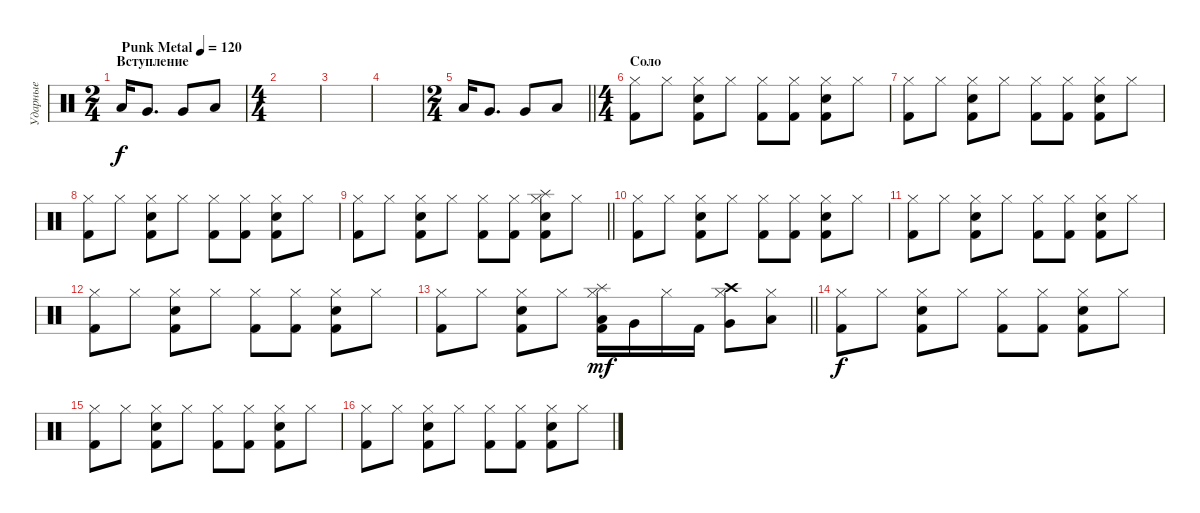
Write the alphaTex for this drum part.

\track ("Ударные" "Ударные") {solo instrument percussion}
\staff {score}
\articulation defaults
\ts (2 4)
\section ("" "Вступление")
\tempo (120 "Punk Metal")
\clef neutral
\ks c "Low Tom (hit)".16{dy f} "Very Low Tom (hit)".8{d} "Very Low Tom (hit)".8 "Low Floor Tom (hit)".8
|
\ts (4 4)
|
|
|
\ts (2 4)
\barLineRight lightlight "Low Tom (hit)".16 "Very Low Tom (hit)".8{d} "Very Low Tom (hit)".8 "Low Floor Tom (hit)".8
|
\ts (4 4)
\section ("" "Соло")
("Hi-Hat (closed)" "Kick (hit) 2").8 "Hi-Hat (closed)".8 ("Hi-Hat (closed)" "Kick (hit) 2" "Electric Snare (hit)").8 "Hi-Hat (closed)".8 ("Hi-Hat (closed)" "Kick (hit) 2").8 ("Hi-Hat (closed)" "Kick (hit) 2").8 ("Hi-Hat (closed)" "Kick (hit) 2" "Electric Snare (hit)").8 "Hi-Hat (closed)".8 |
("Hi-Hat (closed)" "Kick (hit) 2").8 "Hi-Hat (closed)".8 ("Hi-Hat (closed)" "Kick (hit) 2" "Electric Snare (hit)").8 "Hi-Hat (closed)".8 ("Hi-Hat (closed)" "Kick (hit) 2").8 ("Hi-Hat (closed)" "Kick (hit) 2").8 ("Hi-Hat (closed)" "Kick (hit) 2" "Electric Snare (hit)").8 "Hi-Hat (closed)".8 |
("Hi-Hat (closed)" "Kick (hit) 2").8 "Hi-Hat (closed)".8 ("Hi-Hat (closed)" "Kick (hit) 2" "Electric Snare (hit)").8 "Hi-Hat (closed)".8 ("Hi-Hat (closed)" "Kick (hit) 2").8 ("Hi-Hat (closed)" "Kick (hit) 2").8 ("Hi-Hat (closed)" "Kick (hit) 2" "Electric Snare (hit)").8 "Hi-Hat (closed)".8 |
\barLineRight lightlight
("Hi-Hat (closed)" "Kick (hit) 2").8 "Hi-Hat (closed)".8 ("Hi-Hat (closed)" "Kick (hit) 2" "Electric Snare (hit)").8 "Hi-Hat (closed)".8 ("Hi-Hat (closed)" "Kick (hit) 2").8 ("Hi-Hat (closed)" "Kick (hit) 2").8 ("Hi-Hat (closed)" "Kick (hit) 2" "Electric Snare (hit)" "Splash (hit)").8 "Hi-Hat (closed)".8 |
("Hi-Hat (closed)" "Kick (hit) 2").8 "Hi-Hat (closed)".8 ("Hi-Hat (closed)" "Kick (hit) 2" "Electric Snare (hit)").8 "Hi-Hat (closed)".8 ("Hi-Hat (closed)" "Kick (hit) 2").8 ("Hi-Hat (closed)" "Kick (hit) 2").8 ("Hi-Hat (closed)" "Kick (hit) 2" "Electric Snare (hit)").8 "Hi-Hat (closed)".8 |
("Hi-Hat (closed)" "Kick (hit) 2").8 "Hi-Hat (closed)".8 ("Hi-Hat (closed)" "Kick (hit) 2" "Electric Snare (hit)").8 "Hi-Hat (closed)".8 ("Hi-Hat (closed)" "Kick (hit) 2").8 ("Hi-Hat (closed)" "Kick (hit) 2").8 ("Hi-Hat (closed)" "Kick (hit) 2" "Electric Snare (hit)").8 "Hi-Hat (closed)".8 |
("Hi-Hat (closed)" "Kick (hit) 2").8 "Hi-Hat (closed)".8 ("Hi-Hat (closed)" "Kick (hit) 2" "Electric Snare (hit)").8 "Hi-Hat (closed)".8 ("Hi-Hat (closed)" "Kick (hit) 2").8 ("Hi-Hat (closed)" "Kick (hit) 2").8 ("Hi-Hat (closed)" "Kick (hit) 2" "Electric Snare (hit)").8 "Hi-Hat (closed)".8 |
\barLineRight lightlight
("Hi-Hat (closed)" "Kick (hit) 2").8 "Hi-Hat (closed)".8 ("Hi-Hat (closed)" "Kick (hit) 2" "Electric Snare (hit)").8 "Hi-Hat (closed)".8 ("Low Tom (hit)" "Hi-Hat (closed)" "Kick (hit) 2" "Splash (hit)").16{dy mf} "Very Low Tom (hit)".16 "Hi-Hat (closed)".16 "Kick (hit) 2".16 ("Very Low Tom (hit)" "Hi-Hat (closed)" "Crash high (hit)").8 ("Low Floor Tom (hit)" "Hi-Hat (closed)").8 |
("Hi-Hat (closed)" "Kick (hit) 2").8{dy f} "Hi-Hat (closed)".8 ("Hi-Hat (closed)" "Kick (hit) 2" "Electric Snare (hit)").8 "Hi-Hat (closed)".8 ("Hi-Hat (closed)" "Kick (hit) 2").8 ("Hi-Hat (closed)" "Kick (hit) 2").8 ("Hi-Hat (closed)" "Kick (hit) 2" "Electric Snare (hit)").8 "Hi-Hat (closed)".8 |
("Hi-Hat (closed)" "Kick (hit) 2").8 "Hi-Hat (closed)".8 ("Hi-Hat (closed)" "Kick (hit) 2" "Electric Snare (hit)").8 "Hi-Hat (closed)".8 ("Hi-Hat (closed)" "Kick (hit) 2").8 ("Hi-Hat (closed)" "Kick (hit) 2").8 ("Hi-Hat (closed)" "Kick (hit) 2" "Electric Snare (hit)").8 "Hi-Hat (closed)".8 |
("Hi-Hat (closed)" "Kick (hit) 2").8 "Hi-Hat (closed)".8 ("Hi-Hat (closed)" "Kick (hit) 2" "Electric Snare (hit)").8 "Hi-Hat (closed)".8 ("Hi-Hat (closed)" "Kick (hit) 2").8 ("Hi-Hat (closed)" "Kick (hit) 2").8 ("Hi-Hat (closed)" "Kick (hit) 2" "Electric Snare (hit)").8 "Hi-Hat (closed)".8
